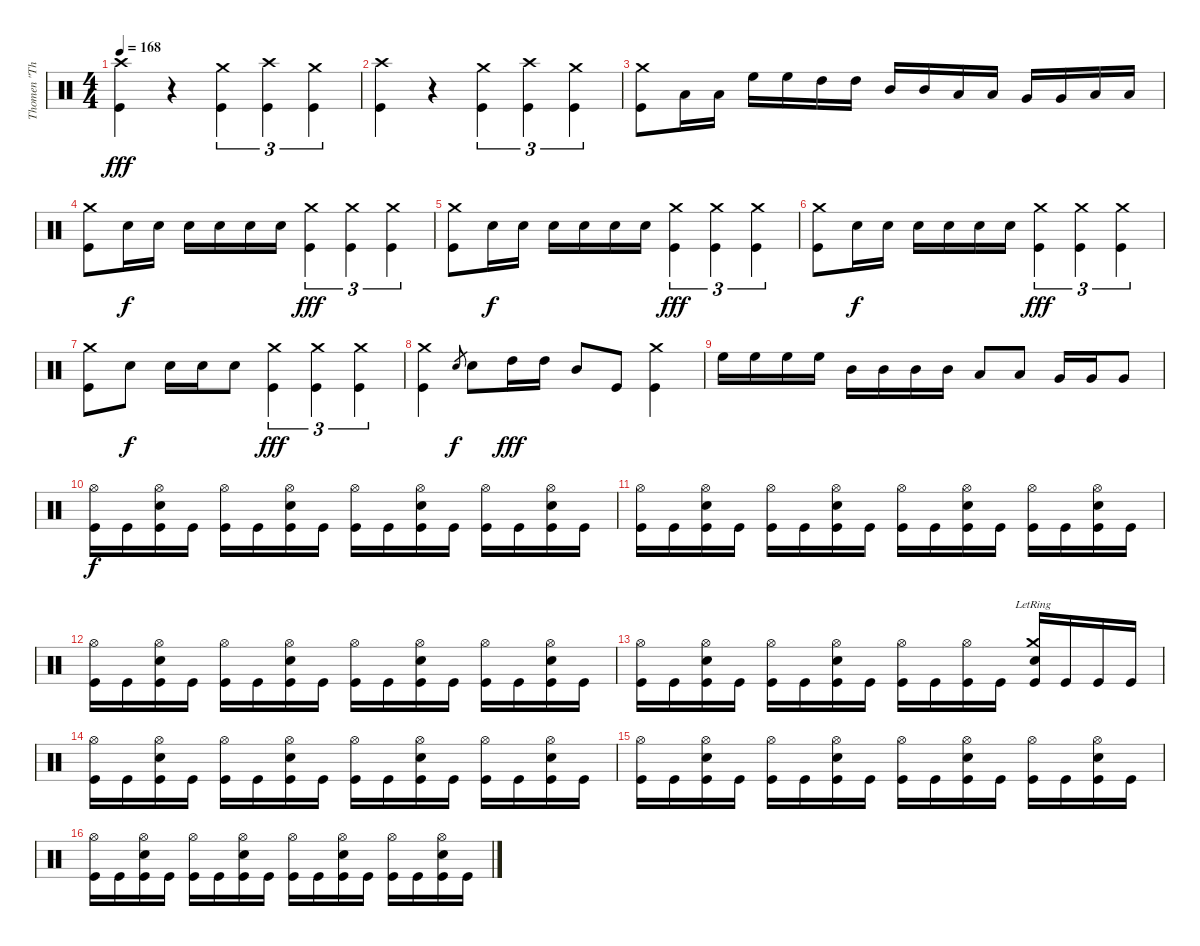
\track ("Thomen \"The Omen\" Stauch" "Thomen \"Th") {instrument percussion}
\staff {score}
\articulation defaults
\ts (4 4)
\tempo 168
\clef neutral
\ks c
("Crash high (hit)" "Kick (hit)").4{dy fff} r.4 ("Crash medium (hit)" "Kick (hit)").4{tu (3 2)} ("Crash high (hit)" "Kick (hit)").4{tu (3 2)} ("Crash medium (hit)" "Kick (hit)").4{tu (3 2)} |
("Crash high (hit)" "Kick (hit)").4 r.4 ("Crash medium (hit)" "Kick (hit)").4{tu (3 2)} ("Crash high (hit)" "Kick (hit)").4{tu (3 2)} ("Crash medium (hit)" "Kick (hit)").4{tu (3 2)} |
("Crash medium (hit)" "Kick (hit)").8 "Low Tom (hit)".16 "Low Tom (hit)".16 "High Floor Tom (hit)".16 "High Floor Tom (hit)".16 "High Tom (hit)".16 "High Tom (hit)".16 "Mid Tom (hit)".16 "Mid Tom (hit)".16 "Low Tom (hit)".16 "Low Tom (hit)".16 "Very Low Tom (hit)".16 "Very Low Tom (hit)".16 "Low Floor Tom (hit)".16 "Low Floor Tom (hit)".16 |
("Crash medium (hit)" "Kick (hit)").8 "Snare (hit) 2".16{dy f} "Snare (hit) 2".16 "Snare (hit) 2".16 "Snare (hit) 2".16 "Snare (hit) 2".16 "Snare (hit) 2".16 ("Crash medium (hit)" "Kick (hit)").4{tu (3 2) dy fff} ("Crash medium (hit)" "Kick (hit)").4{tu (3 2)} ("Crash medium (hit)" "Kick (hit)").4{tu (3 2)} |
("Crash medium (hit)" "Kick (hit)").8 "Snare (hit) 2".16{dy f} "Snare (hit) 2".16 "Snare (hit) 2".16 "Snare (hit) 2".16 "Snare (hit) 2".16 "Snare (hit) 2".16 ("Crash medium (hit)" "Kick (hit)").4{tu (3 2) dy fff} ("Crash medium (hit)" "Kick (hit)").4{tu (3 2)} ("Crash medium (hit)" "Kick (hit)").4{tu (3 2)} |
("Crash medium (hit)" "Kick (hit)").8 "Snare (hit) 2".16{dy f} "Snare (hit) 2".16 "Snare (hit) 2".16 "Snare (hit) 2".16 "Snare (hit) 2".16 "Snare (hit) 2".16 ("Crash medium (hit)" "Kick (hit)").4{tu (3 2) dy fff} ("Crash medium (hit)" "Kick (hit)").4{tu (3 2)} ("Crash medium (hit)" "Kick (hit)").4{tu (3 2)} |
("Crash medium (hit)" "Kick (hit)").8 "Snare (hit) 2".8{dy f} "Snare (hit) 2".16 "Snare (hit) 2".16 "Snare (hit) 2".8 ("Crash medium (hit)" "Kick (hit)").4{tu (3 2) dy fff} ("Crash medium (hit)" "Kick (hit)").4{tu (3 2)} ("Crash medium (hit)" "Kick (hit)").4{tu (3 2)} |
("Crash medium (hit)" "Kick (hit)").4 "Snare (hit) 2".8{gr dy f} "Snare (hit) 2".8 "High Tom (hit)".16{dy fff} "High Tom (hit)".16 "Mid Tom (hit)".8 "Kick (hit)".8 ("Crash medium (hit)" "Kick (hit)").4 |
"High Floor Tom (hit)".16 "High Floor Tom (hit)".16 "High Floor Tom (hit)".16 "High Floor Tom (hit)".16 "Mid Tom (hit)".16 "Mid Tom (hit)".16 "Mid Tom (hit)".16 "Mid Tom (hit)".16 "Low Tom (hit)".8 "Low Tom (hit)".8 "Very Low Tom (hit)".16 "Very Low Tom (hit)".16 "Very Low Tom (hit)".8 |
("Hi-Hat (open)" "Kick (hit)").16{dy f} "Kick (hit)".16 ("Hi-Hat (open)" "Snare (hit) 2" "Kick (hit)").16 "Kick (hit)".16 ("Hi-Hat (open)" "Kick (hit)").16 "Kick (hit)".16 ("Hi-Hat (open)" "Snare (hit) 2" "Kick (hit)").16 "Kick (hit)".16 ("Hi-Hat (open)" "Kick (hit)").16 "Kick (hit)".16 ("Hi-Hat (open)" "Snare (hit) 2" "Kick (hit)").16 "Kick (hit)".16 ("Hi-Hat (open)" "Kick (hit)").16 "Kick (hit)".16 ("Hi-Hat (open)" "Snare (hit) 2" "Kick (hit)").16 "Kick (hit)".16 |
("Hi-Hat (open)" "Kick (hit)").16 "Kick (hit)".16 ("Hi-Hat (open)" "Snare (hit) 2" "Kick (hit)").16 "Kick (hit)".16 ("Hi-Hat (open)" "Kick (hit)").16 "Kick (hit)".16 ("Hi-Hat (open)" "Snare (hit) 2" "Kick (hit)").16 "Kick (hit)".16 ("Hi-Hat (open)" "Kick (hit)").16 "Kick (hit)".16 ("Hi-Hat (open)" "Snare (hit) 2" "Kick (hit)").16 "Kick (hit)".16 ("Hi-Hat (open)" "Kick (hit)").16 "Kick (hit)".16 ("Hi-Hat (open)" "Snare (hit) 2" "Kick (hit)").16 "Kick (hit)".16 |
("Hi-Hat (open)" "Kick (hit)").16 "Kick (hit)".16 ("Hi-Hat (open)" "Snare (hit) 2" "Kick (hit)").16 "Kick (hit)".16 ("Hi-Hat (open)" "Kick (hit)").16 "Kick (hit)".16 ("Hi-Hat (open)" "Snare (hit) 2" "Kick (hit)").16 "Kick (hit)".16 ("Hi-Hat (open)" "Kick (hit)").16 "Kick (hit)".16 ("Hi-Hat (open)" "Snare (hit) 2" "Kick (hit)").16 "Kick (hit)".16 ("Hi-Hat (open)" "Kick (hit)").16 "Kick (hit)".16 ("Hi-Hat (open)" "Snare (hit) 2" "Kick (hit)").16 "Kick (hit)".16 |
("Hi-Hat (open)" "Kick (hit)").16 "Kick (hit)".16 ("Hi-Hat (open)" "Snare (hit) 2" "Kick (hit)").16 "Kick (hit)".16 ("Hi-Hat (open)" "Kick (hit)").16 "Kick (hit)".16 ("Hi-Hat (open)" "Snare (hit) 2" "Kick (hit)").16 "Kick (hit)".16 ("Hi-Hat (open)" "Kick (hit)").16 "Kick (hit)".16 ("Hi-Hat (open)" "Kick (hit)").16 "Kick (hit)".16 ("Crash medium (hit)"{lr} "Snare (hit) 2" "Kick (hit)").16 "Kick (hit)".16 "Kick (hit)".16 "Kick (hit)".16 |
("Hi-Hat (open)" "Kick (hit)").16 "Kick (hit)".16 ("Hi-Hat (open)" "Snare (hit) 2" "Kick (hit)").16 "Kick (hit)".16 ("Hi-Hat (open)" "Kick (hit)").16 "Kick (hit)".16 ("Hi-Hat (open)" "Snare (hit) 2" "Kick (hit)").16 "Kick (hit)".16 ("Hi-Hat (open)" "Kick (hit)").16 "Kick (hit)".16 ("Hi-Hat (open)" "Snare (hit) 2" "Kick (hit)").16 "Kick (hit)".16 ("Hi-Hat (open)" "Kick (hit)").16 "Kick (hit)".16 ("Hi-Hat (open)" "Snare (hit) 2" "Kick (hit)").16 "Kick (hit)".16 |
("Hi-Hat (open)" "Kick (hit)").16 "Kick (hit)".16 ("Hi-Hat (open)" "Snare (hit) 2" "Kick (hit)").16 "Kick (hit)".16 ("Hi-Hat (open)" "Kick (hit)").16 "Kick (hit)".16 ("Hi-Hat (open)" "Snare (hit) 2" "Kick (hit)").16 "Kick (hit)".16 ("Hi-Hat (open)" "Kick (hit)").16 "Kick (hit)".16 ("Hi-Hat (open)" "Snare (hit) 2" "Kick (hit)").16 "Kick (hit)".16 ("Hi-Hat (open)" "Kick (hit)").16 "Kick (hit)".16 ("Hi-Hat (open)" "Snare (hit) 2" "Kick (hit)").16 "Kick (hit)".16 |
("Hi-Hat (open)" "Kick (hit)").16 "Kick (hit)".16 ("Hi-Hat (open)" "Snare (hit) 2" "Kick (hit)").16 "Kick (hit)".16 ("Hi-Hat (open)" "Kick (hit)").16 "Kick (hit)".16 ("Hi-Hat (open)" "Snare (hit) 2" "Kick (hit)").16 "Kick (hit)".16 ("Hi-Hat (open)" "Kick (hit)").16 "Kick (hit)".16 ("Hi-Hat (open)" "Snare (hit) 2" "Kick (hit)").16 "Kick (hit)".16 ("Hi-Hat (open)" "Kick (hit)").16 "Kick (hit)".16 ("Hi-Hat (open)" "Snare (hit) 2" "Kick (hit)").16 "Kick (hit)".16
